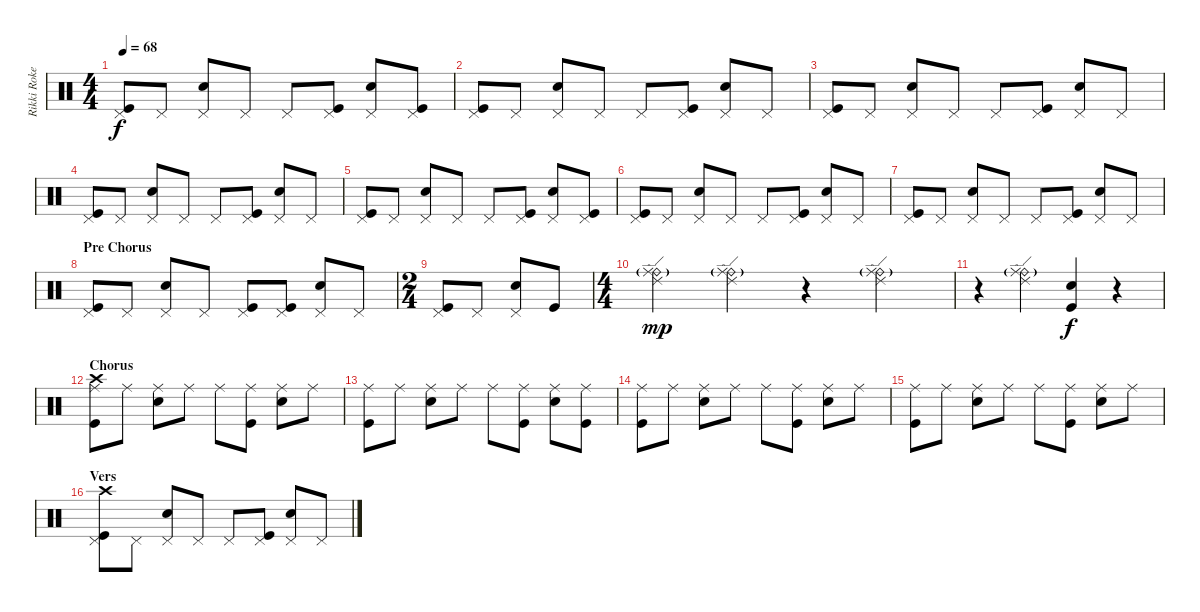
\track ("Rikki Rokett" "Rikki Roke") {instrument percussion}
\staff {score}
\articulation defaults
\ts (4 4)
\tempo 68
\clef neutral
\ks c
("Pedal Hi-Hat (hit)" "Kick (hit)").8{dy f} "Pedal Hi-Hat (hit)".8 ("Pedal Hi-Hat (hit)" "Snare (hit) 2").8 "Pedal Hi-Hat (hit)".8 "Pedal Hi-Hat (hit)".8 ("Pedal Hi-Hat (hit)" "Kick (hit)").8 ("Pedal Hi-Hat (hit)" "Snare (hit) 2").8 ("Pedal Hi-Hat (hit)" "Kick (hit)").8 |
("Pedal Hi-Hat (hit)" "Kick (hit)").8 "Pedal Hi-Hat (hit)".8 ("Pedal Hi-Hat (hit)" "Snare (hit) 2").8 "Pedal Hi-Hat (hit)".8 "Pedal Hi-Hat (hit)".8 ("Pedal Hi-Hat (hit)" "Kick (hit)").8 ("Pedal Hi-Hat (hit)" "Snare (hit) 2").8 "Pedal Hi-Hat (hit)".8 |
("Pedal Hi-Hat (hit)" "Kick (hit)").8 "Pedal Hi-Hat (hit)".8 ("Pedal Hi-Hat (hit)" "Snare (hit) 2").8 "Pedal Hi-Hat (hit)".8 "Pedal Hi-Hat (hit)".8 ("Pedal Hi-Hat (hit)" "Kick (hit)").8 ("Pedal Hi-Hat (hit)" "Snare (hit) 2").8 "Pedal Hi-Hat (hit)".8 |
("Pedal Hi-Hat (hit)" "Kick (hit)").8 "Pedal Hi-Hat (hit)".8 ("Pedal Hi-Hat (hit)" "Snare (hit) 2").8 "Pedal Hi-Hat (hit)".8 "Pedal Hi-Hat (hit)".8 ("Pedal Hi-Hat (hit)" "Kick (hit)").8 ("Pedal Hi-Hat (hit)" "Snare (hit) 2").8 "Pedal Hi-Hat (hit)".8 |
("Pedal Hi-Hat (hit)" "Kick (hit)").8 "Pedal Hi-Hat (hit)".8 ("Pedal Hi-Hat (hit)" "Snare (hit) 2").8 "Pedal Hi-Hat (hit)".8 "Pedal Hi-Hat (hit)".8 ("Pedal Hi-Hat (hit)" "Kick (hit)").8 ("Pedal Hi-Hat (hit)" "Snare (hit) 2").8 ("Pedal Hi-Hat (hit)" "Kick (hit)").8 |
("Pedal Hi-Hat (hit)" "Kick (hit)").8 "Pedal Hi-Hat (hit)".8 ("Pedal Hi-Hat (hit)" "Snare (hit) 2").8 "Pedal Hi-Hat (hit)".8 "Pedal Hi-Hat (hit)".8 ("Pedal Hi-Hat (hit)" "Kick (hit)").8 ("Pedal Hi-Hat (hit)" "Snare (hit) 2").8 "Pedal Hi-Hat (hit)".8 |
("Pedal Hi-Hat (hit)" "Kick (hit)").8 "Pedal Hi-Hat (hit)".8 ("Pedal Hi-Hat (hit)" "Snare (hit) 2").8 "Pedal Hi-Hat (hit)".8 "Pedal Hi-Hat (hit)".8 ("Pedal Hi-Hat (hit)" "Kick (hit)").8 ("Pedal Hi-Hat (hit)" "Snare (hit) 2").8 "Pedal Hi-Hat (hit)".8 |
\section ("" "Pre Chorus")
("Pedal Hi-Hat (hit)" "Kick (hit)").8 "Pedal Hi-Hat (hit)".8 ("Pedal Hi-Hat (hit)" "Snare (hit) 2").8 "Pedal Hi-Hat (hit)".8 ("Pedal Hi-Hat (hit)" "Kick (hit)").8 ("Pedal Hi-Hat (hit)" "Kick (hit)").8 ("Pedal Hi-Hat (hit)" "Snare (hit) 2").8 "Pedal Hi-Hat (hit)".8 |
\ts (2 4)
("Pedal Hi-Hat (hit)" "Kick (hit)").8 "Pedal Hi-Hat (hit)".8 ("Pedal Hi-Hat (hit)" "Snare (hit) 2").8 "Kick (hit)".8 |
\ts (4 4)
("Ride (bell)"{g} "Ride (edge) 2" "Ride (middle)").4{dy mp} ("Ride (bell)"{g} "Ride (edge) 2" "Ride (middle)").4 r.4 ("Ride (bell)"{g} "Ride (edge) 2" "Ride (middle)").4 |
r.4 ("Ride (bell)"{g} "Ride (edge) 2" "Ride (middle)").4 ("Snare (hit) 2" "Kick (hit)").4{dy f} r.4 |
\section ("" "Chorus")
("Ride (middle)" "Crash high (hit)" "Kick (hit)").8 "Ride (middle)".8 ("Ride (middle)" "Snare (hit) 2").8 "Ride (middle)".8 "Ride (middle)".8 ("Ride (middle)" "Kick (hit)").8 ("Ride (middle)" "Snare (hit) 2").8 "Ride (middle)".8 |
("Ride (middle)" "Kick (hit)").8 "Ride (middle)".8 ("Ride (middle)" "Snare (hit) 2").8 "Ride (middle)".8 "Ride (middle)".8 ("Ride (middle)" "Kick (hit)").8 ("Ride (middle)" "Snare (hit) 2").8 ("Ride (middle)" "Kick (hit)").8 |
("Ride (middle)" "Kick (hit)").8 "Ride (middle)".8 ("Ride (middle)" "Snare (hit) 2").8 "Ride (middle)".8 "Ride (middle)".8 ("Ride (middle)" "Kick (hit)").8 ("Ride (middle)" "Snare (hit) 2").8 "Ride (middle)".8 |
("Ride (middle)" "Kick (hit)").8 "Ride (middle)".8 ("Ride (middle)" "Snare (hit) 2").8 "Ride (middle)".8 "Ride (middle)".8 ("Ride (middle)" "Kick (hit)").8 ("Ride (middle)" "Snare (hit) 2").8 "Ride (middle)".8 |
\section ("" "Vers")
("Pedal Hi-Hat (hit)" "Crash high (hit)" "Kick (hit)").8 "Pedal Hi-Hat (hit)".8 ("Pedal Hi-Hat (hit)" "Snare (hit) 2").8 "Pedal Hi-Hat (hit)".8 "Pedal Hi-Hat (hit)".8 ("Pedal Hi-Hat (hit)" "Kick (hit)").8 ("Pedal Hi-Hat (hit)" "Snare (hit) 2").8 "Pedal Hi-Hat (hit)".8
